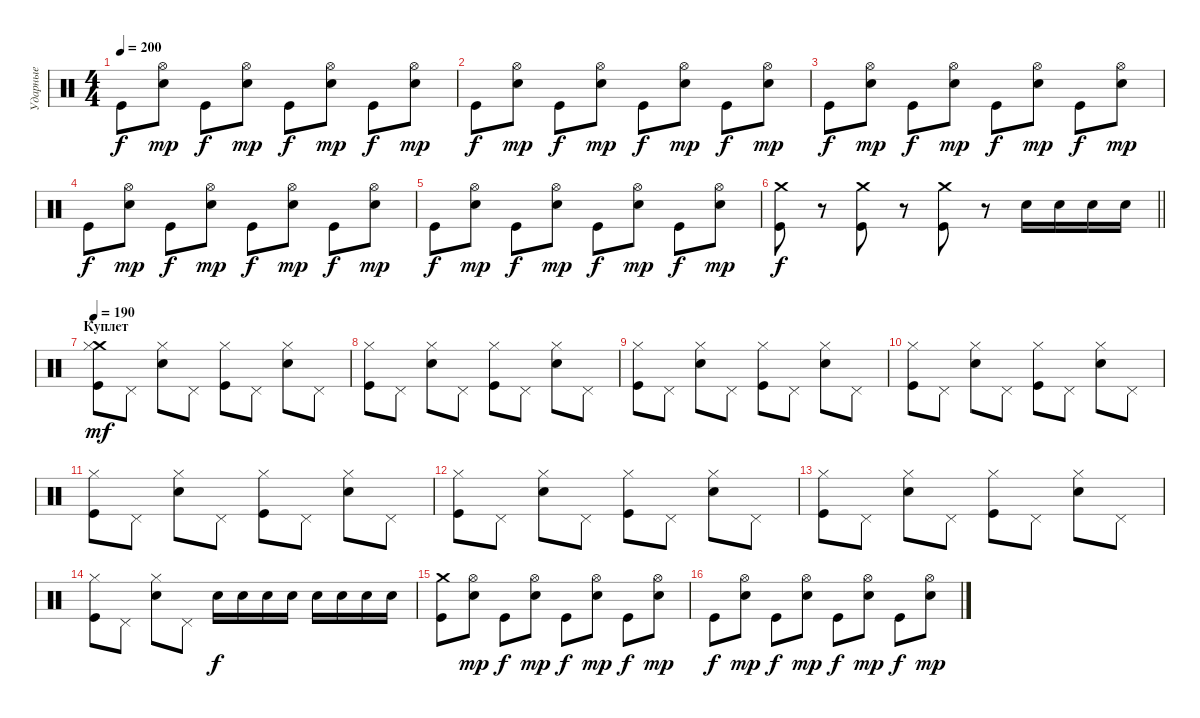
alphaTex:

\track ("Ударные" "Ударные") {instrument percussion}
\staff {score}
\articulation defaults
\ts (4 4)
\tempo 200
\clef neutral
\ks c "Kick (hit)".8{dy f}
("Hi-Hat (open)" "Electric Snare (hit)").8{dy mp} "Kick (hit)".8{dy f} ("Hi-Hat (open)" "Electric Snare (hit)").8{dy mp} "Kick (hit)".8{dy f} ("Hi-Hat (open)" "Electric Snare (hit)").8{dy mp} "Kick (hit)".8{dy f} ("Hi-Hat (open)" "Electric Snare (hit)").8{dy mp} |
"Kick (hit)".8{dy f} ("Hi-Hat (open)" "Electric Snare (hit)").8{dy mp} "Kick (hit)".8{dy f} ("Hi-Hat (open)" "Electric Snare (hit)").8{dy mp} "Kick (hit)".8{dy f} ("Hi-Hat (open)" "Electric Snare (hit)").8{dy mp} "Kick (hit)".8{dy f} ("Hi-Hat (open)" "Electric Snare (hit)").8{dy mp} |
"Kick (hit)".8{dy f} ("Hi-Hat (open)" "Electric Snare (hit)").8{dy mp} "Kick (hit)".8{dy f} ("Hi-Hat (open)" "Electric Snare (hit)").8{dy mp} "Kick (hit)".8{dy f} ("Hi-Hat (open)" "Electric Snare (hit)").8{dy mp} "Kick (hit)".8{dy f} ("Hi-Hat (open)" "Electric Snare (hit)").8{dy mp} |
"Kick (hit)".8{dy f} ("Hi-Hat (open)" "Electric Snare (hit)").8{dy mp} "Kick (hit)".8{dy f} ("Hi-Hat (open)" "Electric Snare (hit)").8{dy mp} "Kick (hit)".8{dy f} ("Hi-Hat (open)" "Electric Snare (hit)").8{dy mp} "Kick (hit)".8{dy f} ("Hi-Hat (open)" "Electric Snare (hit)").8{dy mp} |
"Kick (hit)".8{dy f} ("Hi-Hat (open)" "Electric Snare (hit)").8{dy mp} "Kick (hit)".8{dy f} ("Hi-Hat (open)" "Electric Snare (hit)").8{dy mp} "Kick (hit)".8{dy f} ("Hi-Hat (open)" "Electric Snare (hit)").8{dy mp} "Kick (hit)".8{dy f} ("Hi-Hat (open)" "Electric Snare (hit)").8{dy mp} |
\barLineRight lightlight
("Crash medium (hit)" "Kick (hit)").8{dy f} r.8 ("Crash medium (hit)" "Kick (hit)").8 r.8 ("Crash medium (hit)" "Kick (hit)").8 r.8 "Electric Snare (hit)".16 "Electric Snare (hit)".16 "Electric Snare (hit)".16 "Electric Snare (hit)".16 |
\section ("" "Куплет")
\tempo 190
("Crash medium (hit)" "Kick (hit)" "Hi-Hat (closed)").8{dy mf} "Pedal Hi-Hat (hit)".8 ("Electric Snare (hit)" "Hi-Hat (closed)").8 "Pedal Hi-Hat (hit)".8 ("Kick (hit)" "Hi-Hat (closed)").8 "Pedal Hi-Hat (hit)".8 ("Electric Snare (hit)" "Hi-Hat (closed)").8 "Pedal Hi-Hat (hit)".8 |
("Kick (hit)" "Hi-Hat (closed)").8 "Pedal Hi-Hat (hit)".8 ("Electric Snare (hit)" "Hi-Hat (closed)").8 "Pedal Hi-Hat (hit)".8 ("Kick (hit)" "Hi-Hat (closed)").8 "Pedal Hi-Hat (hit)".8 ("Electric Snare (hit)" "Hi-Hat (closed)").8 "Pedal Hi-Hat (hit)".8 |
("Kick (hit)" "Hi-Hat (closed)").8 "Pedal Hi-Hat (hit)".8 ("Electric Snare (hit)" "Hi-Hat (closed)").8 "Pedal Hi-Hat (hit)".8 ("Kick (hit)" "Hi-Hat (closed)").8 "Pedal Hi-Hat (hit)".8 ("Electric Snare (hit)" "Hi-Hat (closed)").8 "Pedal Hi-Hat (hit)".8 |
("Kick (hit)" "Hi-Hat (closed)").8 "Pedal Hi-Hat (hit)".8 ("Electric Snare (hit)" "Hi-Hat (closed)").8 "Pedal Hi-Hat (hit)".8 ("Kick (hit)" "Hi-Hat (closed)").8 "Pedal Hi-Hat (hit)".8 ("Electric Snare (hit)" "Hi-Hat (closed)").8 "Pedal Hi-Hat (hit)".8 |
("Kick (hit)" "Hi-Hat (closed)").8 "Pedal Hi-Hat (hit)".8 ("Electric Snare (hit)" "Hi-Hat (closed)").8 "Pedal Hi-Hat (hit)".8 ("Kick (hit)" "Hi-Hat (closed)").8 "Pedal Hi-Hat (hit)".8 ("Electric Snare (hit)" "Hi-Hat (closed)").8 "Pedal Hi-Hat (hit)".8 |
("Kick (hit)" "Hi-Hat (closed)").8 "Pedal Hi-Hat (hit)".8 ("Electric Snare (hit)" "Hi-Hat (closed)").8 "Pedal Hi-Hat (hit)".8 ("Kick (hit)" "Hi-Hat (closed)").8 "Pedal Hi-Hat (hit)".8 ("Electric Snare (hit)" "Hi-Hat (closed)").8 "Pedal Hi-Hat (hit)".8 |
("Kick (hit)" "Hi-Hat (closed)").8 "Pedal Hi-Hat (hit)".8 ("Electric Snare (hit)" "Hi-Hat (closed)").8 "Pedal Hi-Hat (hit)".8 ("Kick (hit)" "Hi-Hat (closed)").8 "Pedal Hi-Hat (hit)".8 ("Electric Snare (hit)" "Hi-Hat (closed)").8 "Pedal Hi-Hat (hit)".8 |
("Kick (hit)" "Hi-Hat (closed)").8 "Pedal Hi-Hat (hit)".8 ("Electric Snare (hit)" "Hi-Hat (closed)").8 "Pedal Hi-Hat (hit)".8 "Electric Snare (hit)".16{dy f} "Electric Snare (hit)".16 "Electric Snare (hit)".16 "Electric Snare (hit)".16 "Electric Snare (hit)".16 "Electric Snare (hit)".16 "Electric Snare (hit)".16 "Electric Snare (hit)".16 |
("Crash medium (hit)" "Kick (hit)").8 ("Hi-Hat (open)" "Electric Snare (hit)").8{dy mp} "Kick (hit)".8{dy f} ("Hi-Hat (open)" "Electric Snare (hit)").8{dy mp} "Kick (hit)".8{dy f} ("Hi-Hat (open)" "Electric Snare (hit)").8{dy mp} "Kick (hit)".8{dy f} ("Hi-Hat (open)" "Electric Snare (hit)").8{dy mp} |
"Kick (hit)".8{dy f} ("Hi-Hat (open)" "Electric Snare (hit)").8{dy mp} "Kick (hit)".8{dy f} ("Hi-Hat (open)" "Electric Snare (hit)").8{dy mp} "Kick (hit)".8{dy f} ("Hi-Hat (open)" "Electric Snare (hit)").8{dy mp} "Kick (hit)".8{dy f} ("Hi-Hat (open)" "Electric Snare (hit)").8{dy mp}
